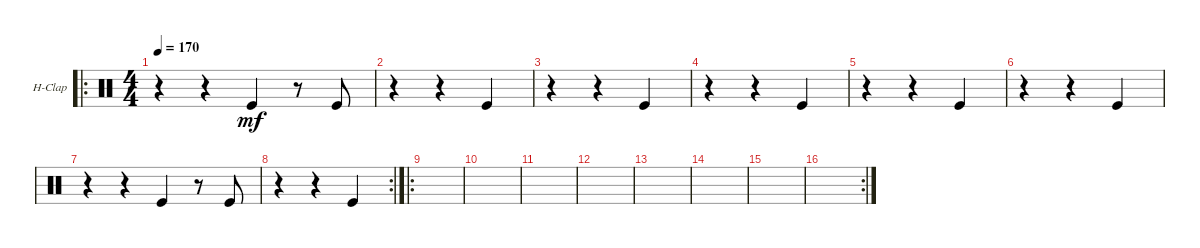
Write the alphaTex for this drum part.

\defaultSystemsLayout 4
\bracketExtendMode groupsimilarinstruments
\firstSystemTrackNameOrientation horizontal
\otherSystemsTrackNameOrientation horizontal
\track ("Hand Clap" "H-Clap") {instrument percussion}
\staff {score}
\articulation defaults
\ro
\ts (4 4)
\tempo 170
\clef neutral
\ks c
r.4{dy mf} r.4 "Kick (hit)".4 r.8 "Kick (hit)".8 |
r.4 r.4 "Kick (hit)".4 |
r.4 r.4 "Kick (hit)".4 |
r.4 r.4 "Kick (hit)".4 |
r.4 r.4 "Kick (hit)".4 |
r.4 r.4 "Kick (hit)".4 |
r.4 r.4 "Kick (hit)".4 r.8 "Kick (hit)".8 |
\rc 2
r.4 r.4 "Kick (hit)".4 |
\ro
|
|
|
|
|
|
|
\rc 2
